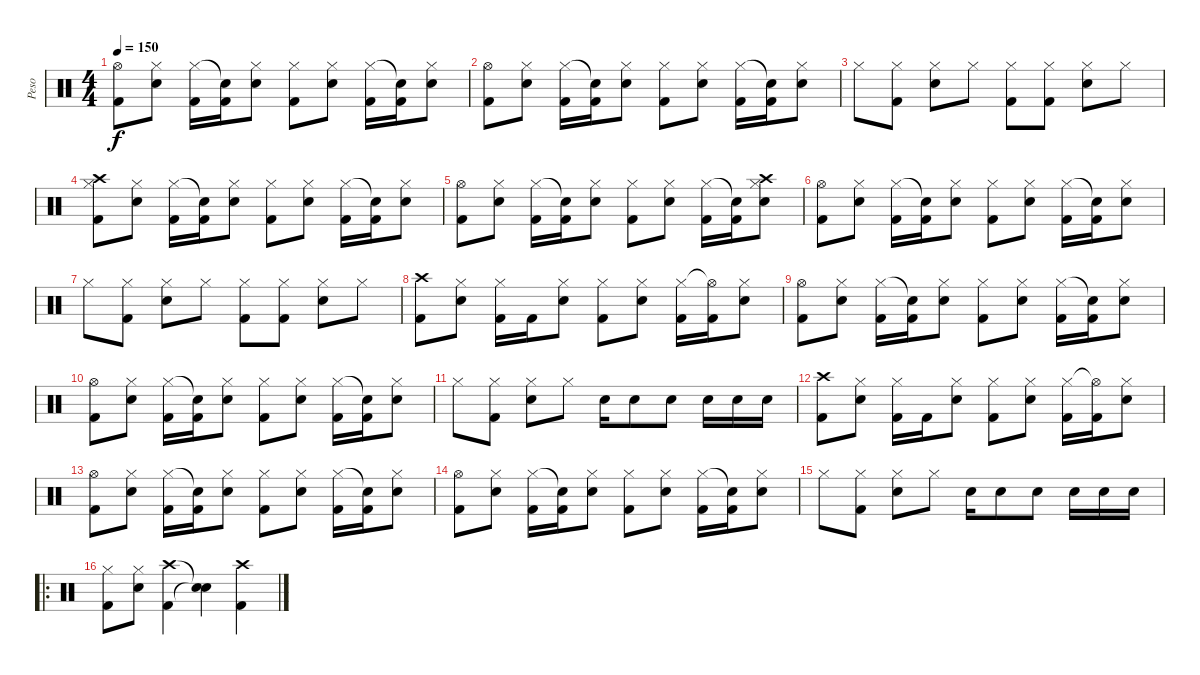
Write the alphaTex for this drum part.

\track ("Peso" "Peso") {instrument percussion}
\staff {score}
\articulation defaults
\ts (4 4)
\tempo 150
\clef neutral
\ks c
("Hi-Hat (open)" "Kick (hit) 2").8{dy f} ("Hi-Hat (closed)" "Snare (hit) 2").8 ("Hi-Hat (closed)" "Kick (hit) 2").16 ("Snare (hit)"{t} "Kick (hit) 2").16 ("Hi-Hat (closed)" "Snare (hit) 2").8 ("Hi-Hat (closed)" "Kick (hit) 2").8 ("Hi-Hat (closed)" "Snare (hit) 2").8 ("Hi-Hat (closed)" "Kick (hit) 2").16 ("Snare (hit)"{t} "Kick (hit) 2").16 ("Hi-Hat (closed)" "Snare (hit) 2").8 |
("Hi-Hat (open)" "Kick (hit) 2").8 ("Hi-Hat (closed)" "Snare (hit) 2").8 ("Hi-Hat (closed)" "Kick (hit) 2").16 ("Snare (hit)"{t} "Kick (hit) 2").16 ("Hi-Hat (closed)" "Snare (hit) 2").8 ("Hi-Hat (closed)" "Kick (hit) 2").8 ("Hi-Hat (closed)" "Snare (hit) 2").8 ("Hi-Hat (closed)" "Kick (hit) 2").16 ("Snare (hit)"{t} "Kick (hit) 2").16 ("Hi-Hat (closed)" "Snare (hit) 2").8 |
"Hi-Hat (closed)".8 ("Hi-Hat (closed)" "Kick (hit) 2").8 ("Hi-Hat (closed)" "Snare (hit) 2").8 "Hi-Hat (closed)".8 ("Hi-Hat (closed)" "Kick (hit) 2").8 ("Hi-Hat (closed)" "Kick (hit) 2").8 ("Hi-Hat (closed)" "Snare (hit) 2").8 "Hi-Hat (closed)".8 |
("Crash high (hit)" "Hi-Hat (closed)" "Kick (hit) 2").8 ("Hi-Hat (closed)" "Snare (hit) 2").8 ("Hi-Hat (closed)" "Kick (hit) 2").16 ("Snare (hit)"{t} "Kick (hit) 2").16 ("Hi-Hat (closed)" "Snare (hit) 2").8 ("Hi-Hat (closed)" "Kick (hit) 2").8 ("Hi-Hat (closed)" "Snare (hit) 2").8 ("Hi-Hat (closed)" "Kick (hit) 2").16 ("Snare (hit)"{t} "Kick (hit) 2").16 ("Hi-Hat (closed)" "Snare (hit) 2").8 |
("Hi-Hat (open)" "Kick (hit) 2").8 ("Hi-Hat (closed)" "Snare (hit) 2").8 ("Hi-Hat (closed)" "Kick (hit) 2").16 ("Snare (hit)"{t} "Kick (hit) 2").16 ("Hi-Hat (closed)" "Snare (hit) 2").8 ("Hi-Hat (closed)" "Kick (hit) 2").8 ("Hi-Hat (closed)" "Snare (hit) 2").8 ("Hi-Hat (closed)" "Kick (hit) 2").16 ("Snare (hit)"{t} "Kick (hit) 2").16 ("Crash high (hit)" "Hi-Hat (closed)" "Snare (hit) 2").8 |
("Hi-Hat (open)" "Kick (hit) 2").8 ("Hi-Hat (closed)" "Snare (hit) 2").8 ("Hi-Hat (closed)" "Kick (hit) 2").16 ("Snare (hit)"{t} "Kick (hit) 2").16 ("Hi-Hat (closed)" "Snare (hit) 2").8 ("Hi-Hat (closed)" "Kick (hit) 2").8 ("Hi-Hat (closed)" "Snare (hit) 2").8 ("Hi-Hat (closed)" "Kick (hit) 2").16 ("Snare (hit)"{t} "Kick (hit) 2").16 ("Hi-Hat (closed)" "Snare (hit) 2").8 |
"Hi-Hat (closed)".8 ("Hi-Hat (closed)" "Kick (hit) 2").8 ("Hi-Hat (closed)" "Snare (hit) 2").8 "Hi-Hat (closed)".8 ("Hi-Hat (closed)" "Kick (hit) 2").8 ("Hi-Hat (closed)" "Kick (hit) 2").8 ("Hi-Hat (closed)" "Snare (hit) 2").8 "Hi-Hat (closed)".8 |
("Crash high (hit)" "Kick (hit) 2").8 ("Hi-Hat (closed)" "Snare (hit) 2").8 ("Hi-Hat (closed)" "Kick (hit) 2").16 "Kick (hit) 2".16 ("Hi-Hat (closed)" "Snare (hit) 2").8 ("Hi-Hat (closed)" "Kick (hit) 2").8 ("Hi-Hat (closed)" "Snare (hit) 2").8 ("Hi-Hat (closed)" "Kick (hit) 2").16 ("Hi-Hat (open)"{t} "Kick (hit) 2").16 ("Hi-Hat (closed)" "Snare (hit) 2").8 |
("Hi-Hat (open)" "Kick (hit) 2").8 ("Hi-Hat (closed)" "Snare (hit) 2").8 ("Hi-Hat (closed)" "Kick (hit) 2").16 ("Snare (hit)"{t} "Kick (hit) 2").16 ("Hi-Hat (closed)" "Snare (hit) 2").8 ("Hi-Hat (closed)" "Kick (hit) 2").8 ("Hi-Hat (closed)" "Snare (hit) 2").8 ("Hi-Hat (closed)" "Kick (hit) 2").16 ("Snare (hit)"{t} "Kick (hit) 2").16 ("Hi-Hat (closed)" "Snare (hit) 2").8 |
("Hi-Hat (open)" "Kick (hit) 2").8 ("Hi-Hat (closed)" "Snare (hit) 2").8 ("Hi-Hat (closed)" "Kick (hit) 2").16 ("Snare (hit)"{t} "Kick (hit) 2").16 ("Hi-Hat (closed)" "Snare (hit) 2").8 ("Hi-Hat (closed)" "Kick (hit) 2").8 ("Hi-Hat (closed)" "Snare (hit) 2").8 ("Hi-Hat (closed)" "Kick (hit) 2").16 ("Snare (hit)"{t} "Kick (hit) 2").16 ("Hi-Hat (closed)" "Snare (hit) 2").8 |
"Hi-Hat (closed)".8 ("Hi-Hat (closed)" "Kick (hit) 2").8 ("Hi-Hat (closed)" "Snare (hit) 2").8 "Hi-Hat (closed)".8 "Snare (hit) 2".16 "Snare (hit) 2".8 "Snare (hit) 2".8 "Snare (hit) 2".16 "Snare (hit) 2".16 "Snare (hit) 2".16 |
("Crash high (hit)" "Kick (hit) 2").8 ("Hi-Hat (closed)" "Snare (hit) 2").8 ("Hi-Hat (closed)" "Kick (hit) 2").16 "Kick (hit) 2".16 ("Hi-Hat (closed)" "Snare (hit) 2").8 ("Hi-Hat (closed)" "Kick (hit) 2").8 ("Hi-Hat (closed)" "Snare (hit) 2").8 ("Hi-Hat (closed)" "Kick (hit) 2").16 ("Hi-Hat (open)"{t} "Kick (hit) 2").16 ("Hi-Hat (closed)" "Snare (hit) 2").8 |
("Hi-Hat (open)" "Kick (hit) 2").8 ("Hi-Hat (closed)" "Snare (hit) 2").8 ("Hi-Hat (closed)" "Kick (hit) 2").16 ("Snare (hit)"{t} "Kick (hit) 2").16 ("Hi-Hat (closed)" "Snare (hit) 2").8 ("Hi-Hat (closed)" "Kick (hit) 2").8 ("Hi-Hat (closed)" "Snare (hit) 2").8 ("Hi-Hat (closed)" "Kick (hit) 2").16 ("Snare (hit)"{t} "Kick (hit) 2").16 ("Hi-Hat (closed)" "Snare (hit) 2").8 |
("Hi-Hat (open)" "Kick (hit) 2").8 ("Hi-Hat (closed)" "Snare (hit) 2").8 ("Hi-Hat (closed)" "Kick (hit) 2").16 ("Snare (hit)"{t} "Kick (hit) 2").16 ("Hi-Hat (closed)" "Snare (hit) 2").8 ("Hi-Hat (closed)" "Kick (hit) 2").8 ("Hi-Hat (closed)" "Snare (hit) 2").8 ("Hi-Hat (closed)" "Kick (hit) 2").16 ("Snare (hit)"{t} "Kick (hit) 2").16 ("Hi-Hat (closed)" "Snare (hit) 2").8 |
"Hi-Hat (closed)".8 ("Hi-Hat (closed)" "Kick (hit) 2").8 ("Hi-Hat (closed)" "Snare (hit) 2").8 "Hi-Hat (closed)".8 "Snare (hit) 2".16 "Snare (hit) 2".8 "Snare (hit) 2".8 "Snare (hit) 2".16 "Snare (hit) 2".16 "Snare (hit) 2".16 |
\ro
("Hi-Hat (closed)" "Kick (hit) 2").8 ("Hi-Hat (closed)" "Snare (hit) 2").8 ("Crash high (hit)" "Kick (hit) 2").4 ("Snare (hit)"{t} "Snare (hit)"{t}).4 ("Crash high (hit)" "Kick (hit) 2").4
